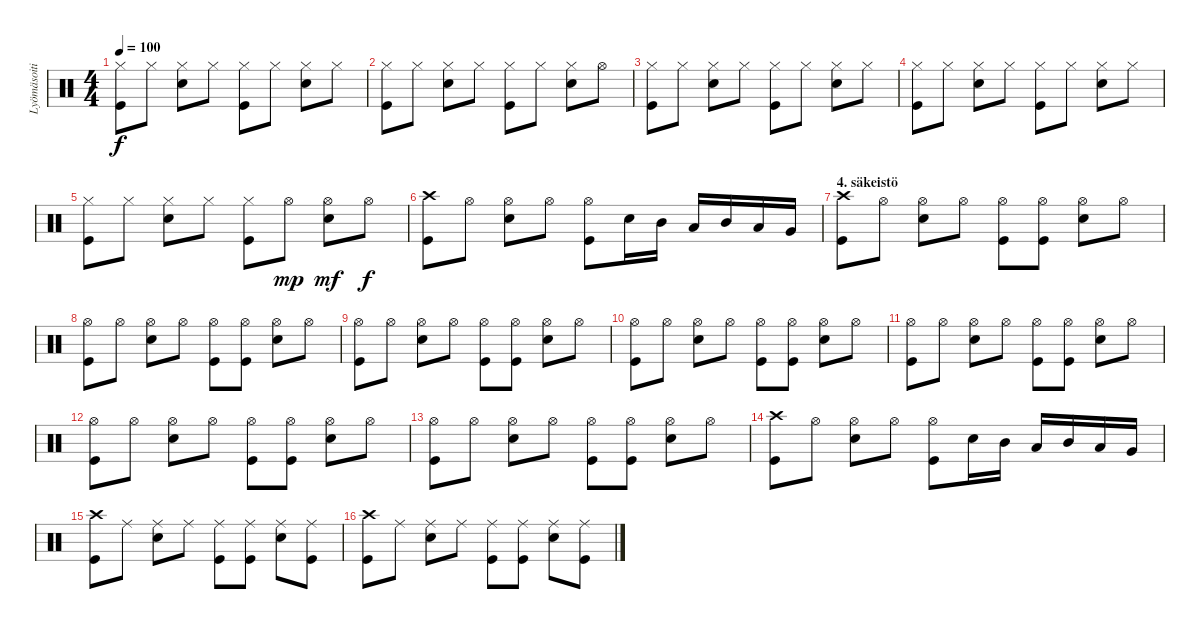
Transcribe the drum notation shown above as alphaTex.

\track ("Lyömäsoitin" "Lyömäsoiti") {instrument percussion}
\staff {score}
\articulation defaults
\ts (4 4)
\tempo 100
\clef neutral
\ks c
("Hi-Hat (closed)" "Kick (hit)").8{dy f} "Hi-Hat (closed)".8 ("Hi-Hat (closed)" "Electric Snare (hit)").8 "Hi-Hat (closed)".8 ("Hi-Hat (closed)" "Kick (hit)").8 "Hi-Hat (closed)".8 ("Hi-Hat (closed)" "Electric Snare (hit)").8 "Hi-Hat (closed)".8 |
("Hi-Hat (closed)" "Kick (hit)").8 "Hi-Hat (closed)".8 ("Hi-Hat (closed)" "Electric Snare (hit)").8 "Hi-Hat (closed)".8 ("Hi-Hat (closed)" "Kick (hit)").8 "Hi-Hat (closed)".8 ("Hi-Hat (closed)" "Electric Snare (hit)").8 "Hi-Hat (open)".8 |
("Hi-Hat (closed)" "Kick (hit)").8 "Hi-Hat (closed)".8 ("Hi-Hat (closed)" "Electric Snare (hit)").8 "Hi-Hat (closed)".8 ("Hi-Hat (closed)" "Kick (hit)").8 "Hi-Hat (closed)".8 ("Hi-Hat (closed)" "Electric Snare (hit)").8 "Hi-Hat (closed)".8 |
("Hi-Hat (closed)" "Kick (hit)").8 "Hi-Hat (closed)".8 ("Hi-Hat (closed)" "Electric Snare (hit)").8 "Hi-Hat (closed)".8 ("Hi-Hat (closed)" "Kick (hit)").8 "Hi-Hat (closed)".8 ("Hi-Hat (closed)" "Electric Snare (hit)").8 "Hi-Hat (closed)".8 |
("Hi-Hat (closed)" "Kick (hit)").8 "Hi-Hat (closed)".8 ("Hi-Hat (closed)" "Electric Snare (hit)").8 "Hi-Hat (closed)".8 ("Hi-Hat (closed)" "Kick (hit)").8 "Hi-Hat (open)".8{dy mp} ("Hi-Hat (open)" "Electric Snare (hit)").8{dy mf} "Hi-Hat (open)".8{dy f} |
("Crash high (hit)" "Kick (hit)").8 "Hi-Hat (open)".8 ("Hi-Hat (open)" "Electric Snare (hit)").8 "Hi-Hat (open)".8 ("Hi-Hat (open)" "Kick (hit)").8 "Electric Snare (hit)".16 "Mid Tom (hit)".16 "Low Tom (hit)".16 "Mid Tom (hit)".16 "Low Tom (hit)".16 "Very Low Tom (hit)".16 |
\section ("" "4. säkeistö")
("Crash high (hit)" "Kick (hit)").8 "Hi-Hat (open)".8 ("Hi-Hat (open)" "Electric Snare (hit)").8 "Hi-Hat (open)".8 ("Hi-Hat (open)" "Kick (hit)").8 ("Hi-Hat (open)" "Kick (hit)").8 ("Hi-Hat (open)" "Electric Snare (hit)").8 "Hi-Hat (open)".8 |
("Hi-Hat (open)" "Kick (hit)").8 "Hi-Hat (open)".8 ("Hi-Hat (open)" "Electric Snare (hit)").8 "Hi-Hat (open)".8 ("Hi-Hat (open)" "Kick (hit)").8 ("Hi-Hat (open)" "Kick (hit)").8 ("Hi-Hat (open)" "Electric Snare (hit)").8 "Hi-Hat (open)".8 |
("Hi-Hat (open)" "Kick (hit)").8 "Hi-Hat (open)".8 ("Hi-Hat (open)" "Electric Snare (hit)").8 "Hi-Hat (open)".8 ("Hi-Hat (open)" "Kick (hit)").8 ("Hi-Hat (open)" "Kick (hit)").8 ("Hi-Hat (open)" "Electric Snare (hit)").8 "Hi-Hat (open)".8 |
("Hi-Hat (open)" "Kick (hit)").8 "Hi-Hat (open)".8 ("Hi-Hat (open)" "Electric Snare (hit)").8 "Hi-Hat (open)".8 ("Hi-Hat (open)" "Kick (hit)").8 ("Hi-Hat (open)" "Kick (hit)").8 ("Hi-Hat (open)" "Electric Snare (hit)").8 "Hi-Hat (open)".8 |
("Hi-Hat (open)" "Kick (hit)").8 "Hi-Hat (open)".8 ("Hi-Hat (open)" "Electric Snare (hit)").8 "Hi-Hat (open)".8 ("Hi-Hat (open)" "Kick (hit)").8 ("Hi-Hat (open)" "Kick (hit)").8 ("Hi-Hat (open)" "Electric Snare (hit)").8 "Hi-Hat (open)".8 |
("Hi-Hat (open)" "Kick (hit)").8 "Hi-Hat (open)".8 ("Hi-Hat (open)" "Electric Snare (hit)").8 "Hi-Hat (open)".8 ("Hi-Hat (open)" "Kick (hit)").8 ("Hi-Hat (open)" "Kick (hit)").8 ("Hi-Hat (open)" "Electric Snare (hit)").8 "Hi-Hat (open)".8 |
("Hi-Hat (open)" "Kick (hit)").8 "Hi-Hat (open)".8 ("Hi-Hat (open)" "Electric Snare (hit)").8 "Hi-Hat (open)".8 ("Hi-Hat (open)" "Kick (hit)").8 ("Hi-Hat (open)" "Kick (hit)").8 ("Hi-Hat (open)" "Electric Snare (hit)").8 "Hi-Hat (open)".8 |
("Crash high (hit)" "Kick (hit)").8 "Hi-Hat (open)".8 ("Hi-Hat (open)" "Electric Snare (hit)").8 "Hi-Hat (open)".8 ("Hi-Hat (open)" "Kick (hit)").8 "Electric Snare (hit)".16 "Mid Tom (hit)".16 "Low Tom (hit)".16 "Mid Tom (hit)".16 "Low Tom (hit)".16 "Very Low Tom (hit)".16 |
("Crash high (hit)" "Kick (hit)").8 "Ride (middle)".8 ("Ride (middle)" "Electric Snare (hit)").8 "Ride (middle)".8 ("Ride (middle)" "Kick (hit)").8 ("Ride (middle)" "Kick (hit)").8 ("Ride (middle)" "Electric Snare (hit)").8 ("Ride (middle)" "Kick (hit)").8 |
("Crash high (hit)" "Kick (hit)").8 "Ride (middle)".8 ("Ride (middle)" "Electric Snare (hit)").8 "Ride (middle)".8 ("Ride (middle)" "Kick (hit)").8 ("Ride (middle)" "Kick (hit)").8 ("Ride (middle)" "Electric Snare (hit)").8 ("Ride (middle)" "Kick (hit)").8
